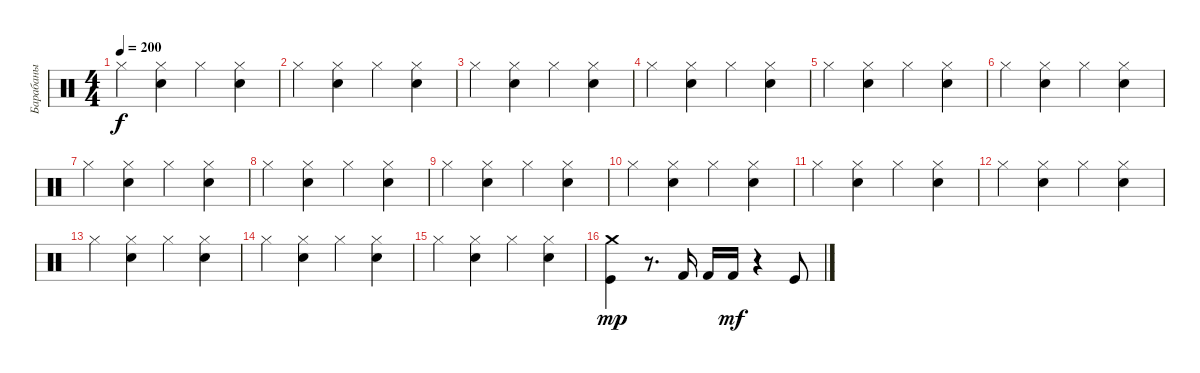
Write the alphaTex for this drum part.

\track ("Барабаны" "Барабаны") {instrument percussion}
\staff {score}
\articulation defaults
\ts (4 4)
\tempo 200
\clef neutral
\ks c "Hi-Hat (closed)".4{dy f}
("Snare (hit) 2" "Hi-Hat (closed)").4 "Hi-Hat (closed)".4 ("Snare (hit) 2" "Hi-Hat (closed)").4 |
"Hi-Hat (closed)".4 ("Snare (hit) 2" "Hi-Hat (closed)").4 "Hi-Hat (closed)".4 ("Snare (hit) 2" "Hi-Hat (closed)").4 |
"Hi-Hat (closed)".4 ("Snare (hit) 2" "Hi-Hat (closed)").4 "Hi-Hat (closed)".4 ("Snare (hit) 2" "Hi-Hat (closed)").4 |
"Hi-Hat (closed)".4 ("Snare (hit) 2" "Hi-Hat (closed)").4 "Hi-Hat (closed)".4 ("Snare (hit) 2" "Hi-Hat (closed)").4 |
"Hi-Hat (closed)".4 ("Snare (hit) 2" "Hi-Hat (closed)").4 "Hi-Hat (closed)".4 ("Snare (hit) 2" "Hi-Hat (closed)").4 |
"Hi-Hat (closed)".4 ("Snare (hit) 2" "Hi-Hat (closed)").4 "Hi-Hat (closed)".4 ("Snare (hit) 2" "Hi-Hat (closed)").4 |
"Hi-Hat (closed)".4 ("Snare (hit) 2" "Hi-Hat (closed)").4 "Hi-Hat (closed)".4 ("Snare (hit) 2" "Hi-Hat (closed)").4 |
"Hi-Hat (closed)".4 ("Snare (hit) 2" "Hi-Hat (closed)").4 "Hi-Hat (closed)".4 ("Snare (hit) 2" "Hi-Hat (closed)").4 |
"Hi-Hat (closed)".4 ("Snare (hit) 2" "Hi-Hat (closed)").4 "Hi-Hat (closed)".4 ("Snare (hit) 2" "Hi-Hat (closed)").4 |
"Hi-Hat (closed)".4 ("Snare (hit) 2" "Hi-Hat (closed)").4 "Hi-Hat (closed)".4 ("Snare (hit) 2" "Hi-Hat (closed)").4 |
"Hi-Hat (closed)".4 ("Snare (hit) 2" "Hi-Hat (closed)").4 "Hi-Hat (closed)".4 ("Snare (hit) 2" "Hi-Hat (closed)").4 |
"Hi-Hat (closed)".4 ("Snare (hit) 2" "Hi-Hat (closed)").4 "Hi-Hat (closed)".4 ("Snare (hit) 2" "Hi-Hat (closed)").4 |
"Hi-Hat (closed)".4 ("Snare (hit) 2" "Hi-Hat (closed)").4 "Hi-Hat (closed)".4 ("Snare (hit) 2" "Hi-Hat (closed)").4 |
"Hi-Hat (closed)".4 ("Snare (hit) 2" "Hi-Hat (closed)").4 "Hi-Hat (closed)".4 ("Snare (hit) 2" "Hi-Hat (closed)").4 |
"Hi-Hat (closed)".4 ("Snare (hit) 2" "Hi-Hat (closed)").4 "Hi-Hat (closed)".4 ("Snare (hit) 2" "Hi-Hat (closed)").4 |
("Crash medium (hit)" "Kick (hit)").4{dy mp} r.8{d} "Kick (hit) 2".16 "Kick (hit) 2".16 "Kick (hit) 2".16{dy mf} r.4 "Kick (hit)".8
